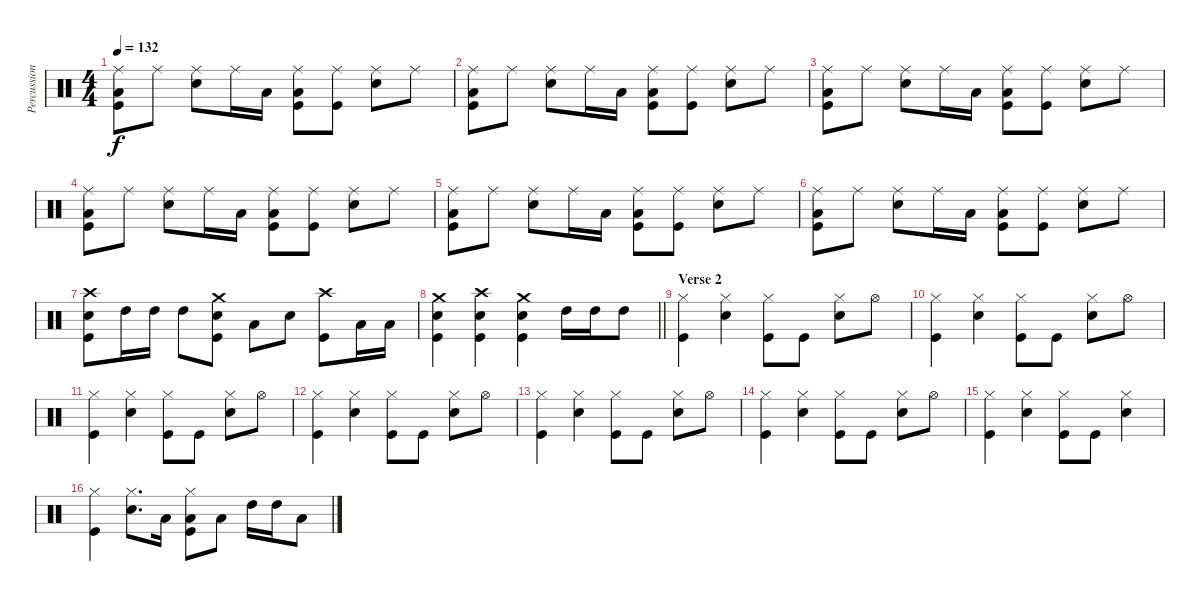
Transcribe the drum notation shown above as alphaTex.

\track ("Percussion" "Percussion") {instrument percussion}
\staff {score}
\articulation defaults
\ts (4 4)
\tempo 132
\clef neutral
\ks c
("Ride (middle)" "Low Tom (hit)" "Kick (hit)").8{dy f} "Ride (middle)".8 ("Ride (middle)" "Snare (hit) 2").8 "Ride (middle)".16 "Low Tom (hit)".16 ("Ride (middle)" "Low Tom (hit)" "Kick (hit)").8 ("Ride (middle)" "Kick (hit)").8 ("Ride (middle)" "Snare (hit) 2").8 "Ride (middle)".8 |
("Ride (middle)" "Low Tom (hit)" "Kick (hit)").8 "Ride (middle)".8 ("Ride (middle)" "Snare (hit) 2").8 "Ride (middle)".16 "Low Tom (hit)".16 ("Ride (middle)" "Low Tom (hit)" "Kick (hit)").8 ("Ride (middle)" "Kick (hit)").8 ("Ride (middle)" "Snare (hit) 2").8 "Ride (middle)".8 |
("Ride (middle)" "Low Tom (hit)" "Kick (hit)").8 "Ride (middle)".8 ("Ride (middle)" "Snare (hit) 2").8 "Ride (middle)".16 "Low Tom (hit)".16 ("Ride (middle)" "Low Tom (hit)" "Kick (hit)").8 ("Ride (middle)" "Kick (hit)").8 ("Ride (middle)" "Snare (hit) 2").8 "Ride (middle)".8 |
("Ride (middle)" "Low Tom (hit)" "Kick (hit)").8 "Ride (middle)".8 ("Ride (middle)" "Snare (hit) 2").8 "Ride (middle)".16 "Low Tom (hit)".16 ("Ride (middle)" "Low Tom (hit)" "Kick (hit)").8 ("Ride (middle)" "Kick (hit)").8 ("Ride (middle)" "Snare (hit) 2").8 "Ride (middle)".8 |
("Ride (middle)" "Low Tom (hit)" "Kick (hit)").8 "Ride (middle)".8 ("Ride (middle)" "Snare (hit) 2").8 "Ride (middle)".16 "Low Tom (hit)".16 ("Ride (middle)" "Low Tom (hit)" "Kick (hit)").8 ("Ride (middle)" "Kick (hit)").8 ("Ride (middle)" "Snare (hit) 2").8 "Ride (middle)".8 |
("Ride (middle)" "Low Tom (hit)" "Kick (hit)").8 "Ride (middle)".8 ("Ride (middle)" "Snare (hit) 2").8 "Ride (middle)".16 "Low Tom (hit)".16 ("Ride (middle)" "Low Tom (hit)" "Kick (hit)").8 ("Ride (middle)" "Kick (hit)").8 ("Ride (middle)" "Snare (hit) 2").8 "Ride (middle)".8 |
("Crash high (hit)" "Snare (hit) 2" "Kick (hit)").8 "High Tom (hit)".16 "High Tom (hit)".16 "High Tom (hit)".8 ("Crash medium (hit)" "Snare (hit) 2" "Kick (hit)").8 "Low Tom (hit)".8 "Snare (hit) 2".8 ("Crash high (hit)" "Kick (hit)").8 "Low Tom (hit)".16 "Low Tom (hit)".16 |
\barLineRight lightlight
("Crash medium (hit)" "Snare (hit) 2" "Kick (hit)").4 ("Crash high (hit)" "Snare (hit) 2" "Kick (hit)").4 ("Crash medium (hit)" "Snare (hit) 2" "Kick (hit)").4 "High Tom (hit)".16 "High Tom (hit)".16 "High Tom (hit)".8 |
\section ("" "Verse 2")
("Hi-Hat (closed)" "Kick (hit)").4 ("Hi-Hat (closed)" "Snare (hit) 2").4 ("Hi-Hat (closed)" "Kick (hit)").8 "Kick (hit)".8 ("Hi-Hat (closed)" "Snare (hit) 2").8 "Hi-Hat (open)".8 |
("Hi-Hat (closed)" "Kick (hit)").4 ("Hi-Hat (closed)" "Snare (hit) 2").4 ("Hi-Hat (closed)" "Kick (hit)").8 "Kick (hit)".8 ("Hi-Hat (closed)" "Snare (hit) 2").8 "Hi-Hat (open)".8 |
("Hi-Hat (closed)" "Kick (hit)").4 ("Hi-Hat (closed)" "Snare (hit) 2").4 ("Hi-Hat (closed)" "Kick (hit)").8 "Kick (hit)".8 ("Hi-Hat (closed)" "Snare (hit) 2").8 "Hi-Hat (open)".8 |
("Hi-Hat (closed)" "Kick (hit)").4 ("Hi-Hat (closed)" "Snare (hit) 2").4 ("Hi-Hat (closed)" "Kick (hit)").8 "Kick (hit)".8 ("Hi-Hat (closed)" "Snare (hit) 2").8 "Hi-Hat (open)".8 |
("Hi-Hat (closed)" "Kick (hit)").4 ("Hi-Hat (closed)" "Snare (hit) 2").4 ("Hi-Hat (closed)" "Kick (hit)").8 "Kick (hit)".8 ("Hi-Hat (closed)" "Snare (hit) 2").8 "Hi-Hat (open)".8 |
("Hi-Hat (closed)" "Kick (hit)").4 ("Hi-Hat (closed)" "Snare (hit) 2").4 ("Hi-Hat (closed)" "Kick (hit)").8 "Kick (hit)".8 ("Hi-Hat (closed)" "Snare (hit) 2").8 "Hi-Hat (open)".8 |
("Hi-Hat (closed)" "Kick (hit)").4 ("Hi-Hat (closed)" "Snare (hit) 2").4 ("Hi-Hat (closed)" "Kick (hit)").8 "Kick (hit)".8 ("Hi-Hat (closed)" "Snare (hit) 2").4 |
("Hi-Hat (closed)" "Kick (hit)").4 ("Hi-Hat (closed)" "Snare (hit) 2").8{d} "Low Tom (hit)".16 ("Hi-Hat (closed)" "Low Tom (hit)" "Kick (hit)").8 "Low Tom (hit)".8 "High Tom (hit)".16 "High Tom (hit)".16 "Low Tom (hit)".8
